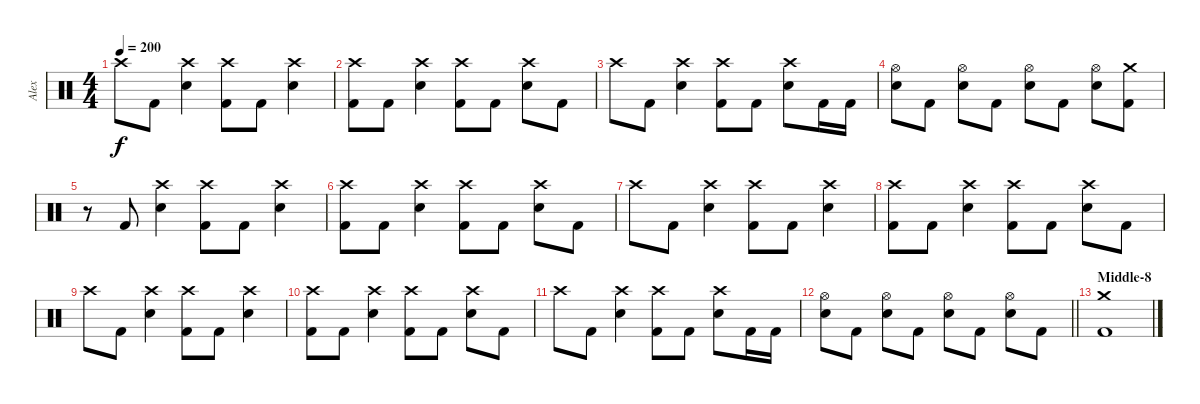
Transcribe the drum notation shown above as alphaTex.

\track ("Alex" "Alex") {instrument percussion}
\staff {score}
\articulation defaults
\ts (4 4)
\tempo 200
\clef neutral
\ks c "Crash high (hit)".8{dy f} "Kick (hit) 2".8
("Crash high (hit)" "Electric Snare (hit)").4 ("Crash high (hit)" "Kick (hit) 2").8 "Kick (hit) 2".8 ("Crash high (hit)" "Electric Snare (hit)").4 |
("Crash high (hit)" "Kick (hit) 2").8 "Kick (hit) 2".8 ("Crash high (hit)" "Electric Snare (hit)").4 ("Crash high (hit)" "Kick (hit) 2").8 "Kick (hit) 2".8 ("Crash high (hit)" "Electric Snare (hit)").8 "Kick (hit) 2".8 |
"Crash high (hit)".8 "Kick (hit) 2".8 ("Crash high (hit)" "Electric Snare (hit)").4 ("Crash high (hit)" "Kick (hit) 2").8 "Kick (hit) 2".8 ("Crash high (hit)" "Electric Snare (hit)").8 "Kick (hit) 2".16 "Kick (hit) 2".16 |
("Hi-Hat (open)" "Electric Snare (hit)").8 "Kick (hit) 2".8 ("Hi-Hat (open)" "Electric Snare (hit)").8 "Kick (hit) 2".8 ("Hi-Hat (open)" "Electric Snare (hit)").8 "Kick (hit) 2".8 ("Hi-Hat (open)" "Electric Snare (hit)").8 ("Crash medium (hit)" "Kick (hit) 2").8 |
r.8 "Kick (hit) 2".8 ("Crash high (hit)" "Electric Snare (hit)").4 ("Crash high (hit)" "Kick (hit) 2").8 "Kick (hit) 2".8 ("Crash high (hit)" "Electric Snare (hit)").4 |
("Crash high (hit)" "Kick (hit) 2").8 "Kick (hit) 2".8 ("Crash high (hit)" "Electric Snare (hit)").4 ("Crash high (hit)" "Kick (hit) 2").8 "Kick (hit) 2".8 ("Crash high (hit)" "Electric Snare (hit)").8 "Kick (hit) 2".8 |
"Crash high (hit)".8 "Kick (hit) 2".8 ("Crash high (hit)" "Electric Snare (hit)").4 ("Crash high (hit)" "Kick (hit) 2").8 "Kick (hit) 2".8 ("Crash high (hit)" "Electric Snare (hit)").4 |
("Crash high (hit)" "Kick (hit) 2").8 "Kick (hit) 2".8 ("Crash high (hit)" "Electric Snare (hit)").4 ("Crash high (hit)" "Kick (hit) 2").8 "Kick (hit) 2".8 ("Crash high (hit)" "Electric Snare (hit)").8 "Kick (hit) 2".8 |
"Crash high (hit)".8 "Kick (hit) 2".8 ("Crash high (hit)" "Electric Snare (hit)").4 ("Crash high (hit)" "Kick (hit) 2").8 "Kick (hit) 2".8 ("Crash high (hit)" "Electric Snare (hit)").4 |
("Crash high (hit)" "Kick (hit) 2").8 "Kick (hit) 2".8 ("Crash high (hit)" "Electric Snare (hit)").4 ("Crash high (hit)" "Kick (hit) 2").8 "Kick (hit) 2".8 ("Crash high (hit)" "Electric Snare (hit)").8 "Kick (hit) 2".8 |
"Crash high (hit)".8 "Kick (hit) 2".8 ("Crash high (hit)" "Electric Snare (hit)").4 ("Crash high (hit)" "Kick (hit) 2").8 "Kick (hit) 2".8 ("Crash high (hit)" "Electric Snare (hit)").8 "Kick (hit) 2".16 "Kick (hit) 2".16 |
\barLineRight lightlight
("Hi-Hat (open)" "Electric Snare (hit)").8 "Kick (hit) 2".8 ("Hi-Hat (open)" "Electric Snare (hit)").8 "Kick (hit) 2".8 ("Hi-Hat (open)" "Electric Snare (hit)").8 "Kick (hit) 2".8 ("Hi-Hat (open)" "Electric Snare (hit)").8 "Kick (hit) 2".8 |
\section ("" "Middle-8")
("Crash medium (hit)" "Kick (hit) 2").1
